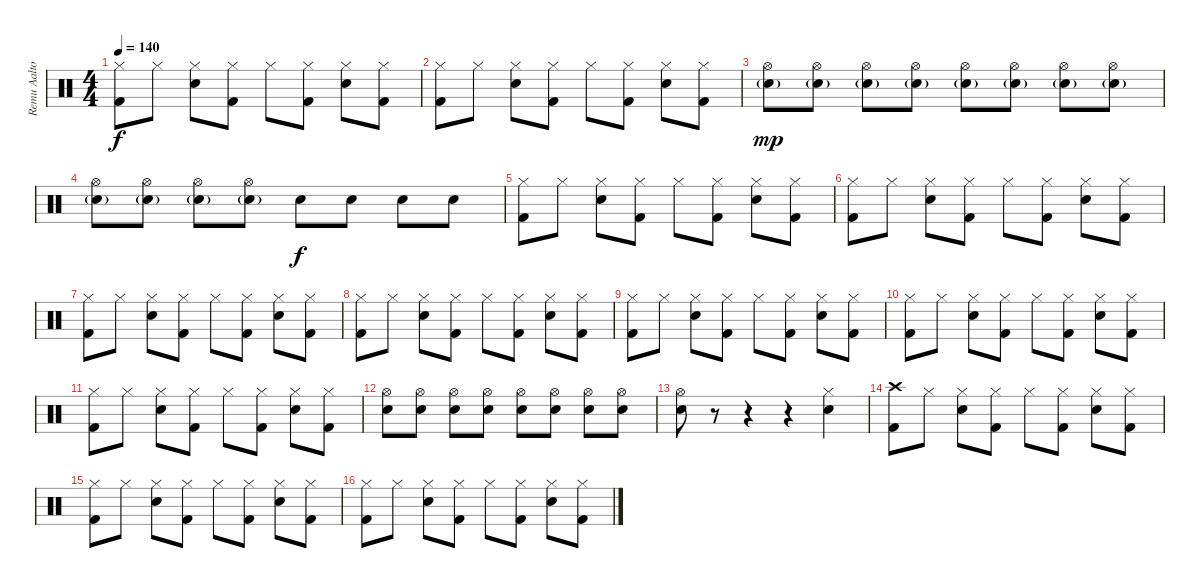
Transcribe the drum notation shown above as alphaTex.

\track ("Remu Aaltonen" "Remu Aalto") {instrument percussion}
\staff {score}
\articulation defaults
\ts (4 4)
\tempo 140
\clef neutral
\ks c
("Hi-Hat (closed)" "Kick (hit) 2").8{dy f} "Hi-Hat (closed)".8 ("Hi-Hat (closed)" "Snare (hit) 2").8 ("Hi-Hat (closed)" "Kick (hit) 2").8 "Hi-Hat (closed)".8 ("Hi-Hat (closed)" "Kick (hit) 2").8 ("Hi-Hat (closed)" "Snare (hit) 2").8 ("Hi-Hat (closed)" "Kick (hit) 2").8 |
("Hi-Hat (closed)" "Kick (hit) 2").8 "Hi-Hat (closed)".8 ("Hi-Hat (closed)" "Snare (hit) 2").8 ("Hi-Hat (closed)" "Kick (hit) 2").8 "Hi-Hat (closed)".8 ("Hi-Hat (closed)" "Kick (hit) 2").8 ("Hi-Hat (closed)" "Snare (hit) 2").8 ("Hi-Hat (closed)" "Kick (hit) 2").8 |
("Hi-Hat (open)" "Snare (hit) 2"{g}).8{dy mp} ("Hi-Hat (open)" "Snare (hit) 2"{g}).8 ("Hi-Hat (open)" "Snare (hit) 2"{g}).8 ("Hi-Hat (open)" "Snare (hit) 2"{g}).8 ("Hi-Hat (open)" "Snare (hit) 2"{g}).8 ("Hi-Hat (open)" "Snare (hit) 2"{g}).8 ("Hi-Hat (open)" "Snare (hit) 2"{g}).8 ("Hi-Hat (open)" "Snare (hit) 2"{g}).8 |
("Hi-Hat (open)" "Snare (hit) 2"{g}).8 ("Hi-Hat (open)" "Snare (hit) 2"{g}).8 ("Hi-Hat (open)" "Snare (hit) 2"{g}).8 ("Hi-Hat (open)" "Snare (hit) 2"{g}).8 "Snare (hit) 2".8{dy f} "Snare (hit) 2".8 "Snare (hit) 2".8 "Snare (hit) 2".8 |
("Hi-Hat (closed)" "Kick (hit) 2").8 "Hi-Hat (closed)".8 ("Hi-Hat (closed)" "Snare (hit) 2").8 ("Hi-Hat (closed)" "Kick (hit) 2").8 "Hi-Hat (closed)".8 ("Hi-Hat (closed)" "Kick (hit) 2").8 ("Hi-Hat (closed)" "Snare (hit) 2").8 ("Hi-Hat (closed)" "Kick (hit) 2").8 |
("Hi-Hat (closed)" "Kick (hit) 2").8 "Hi-Hat (closed)".8 ("Hi-Hat (closed)" "Snare (hit) 2").8 ("Hi-Hat (closed)" "Kick (hit) 2").8 "Hi-Hat (closed)".8 ("Hi-Hat (closed)" "Kick (hit) 2").8 ("Hi-Hat (closed)" "Snare (hit) 2").8 ("Hi-Hat (closed)" "Kick (hit) 2").8 |
("Hi-Hat (closed)" "Kick (hit) 2").8 "Hi-Hat (closed)".8 ("Hi-Hat (closed)" "Snare (hit) 2").8 ("Hi-Hat (closed)" "Kick (hit) 2").8 "Hi-Hat (closed)".8 ("Hi-Hat (closed)" "Kick (hit) 2").8 ("Hi-Hat (closed)" "Snare (hit) 2").8 ("Hi-Hat (closed)" "Kick (hit) 2").8 |
("Hi-Hat (closed)" "Kick (hit) 2").8 "Hi-Hat (closed)".8 ("Hi-Hat (closed)" "Snare (hit) 2").8 ("Hi-Hat (closed)" "Kick (hit) 2").8 "Hi-Hat (closed)".8 ("Hi-Hat (closed)" "Kick (hit) 2").8 ("Hi-Hat (closed)" "Snare (hit) 2").8 ("Hi-Hat (closed)" "Kick (hit) 2").8 |
("Hi-Hat (closed)" "Kick (hit) 2").8 "Hi-Hat (closed)".8 ("Hi-Hat (closed)" "Snare (hit) 2").8 ("Hi-Hat (closed)" "Kick (hit) 2").8 "Hi-Hat (closed)".8 ("Hi-Hat (closed)" "Kick (hit) 2").8 ("Hi-Hat (closed)" "Snare (hit) 2").8 ("Hi-Hat (closed)" "Kick (hit) 2").8 |
("Hi-Hat (closed)" "Kick (hit) 2").8 "Hi-Hat (closed)".8 ("Hi-Hat (closed)" "Snare (hit) 2").8 ("Hi-Hat (closed)" "Kick (hit) 2").8 "Hi-Hat (closed)".8 ("Hi-Hat (closed)" "Kick (hit) 2").8 ("Hi-Hat (closed)" "Snare (hit) 2").8 ("Hi-Hat (closed)" "Kick (hit) 2").8 |
("Hi-Hat (closed)" "Kick (hit) 2").8 "Hi-Hat (closed)".8 ("Hi-Hat (closed)" "Snare (hit) 2").8 ("Hi-Hat (closed)" "Kick (hit) 2").8 "Hi-Hat (closed)".8 ("Hi-Hat (closed)" "Kick (hit) 2").8 ("Hi-Hat (closed)" "Snare (hit) 2").8 ("Hi-Hat (closed)" "Kick (hit) 2").8 |
("Hi-Hat (open)" "Snare (hit) 2").8{volume 5} ("Hi-Hat (open)" "Snare (hit) 2").8{volume 13} ("Hi-Hat (open)" "Snare (hit) 2").8 ("Hi-Hat (open)" "Snare (hit) 2").8 ("Hi-Hat (open)" "Snare (hit) 2").8 ("Hi-Hat (open)" "Snare (hit) 2").8 ("Hi-Hat (open)" "Snare (hit) 2").8 ("Hi-Hat (open)" "Snare (hit) 2").8 |
("Hi-Hat (open)" "Snare (hit) 2").8 r.8 r.4 r.4 ("Hi-Hat (closed)" "Snare (hit) 2").4 |
("Crash high (hit)" "Kick (hit) 2").8 "Hi-Hat (closed)".8 ("Hi-Hat (closed)" "Snare (hit) 2").8 ("Hi-Hat (closed)" "Kick (hit) 2").8 "Hi-Hat (closed)".8 ("Hi-Hat (closed)" "Kick (hit) 2").8 ("Hi-Hat (closed)" "Snare (hit) 2").8 ("Hi-Hat (closed)" "Kick (hit) 2").8 |
("Hi-Hat (closed)" "Kick (hit) 2").8 "Hi-Hat (closed)".8 ("Hi-Hat (closed)" "Snare (hit) 2").8 ("Hi-Hat (closed)" "Kick (hit) 2").8 "Hi-Hat (closed)".8 ("Hi-Hat (closed)" "Kick (hit) 2").8 ("Hi-Hat (closed)" "Snare (hit) 2").8 ("Hi-Hat (closed)" "Kick (hit) 2").8 |
("Hi-Hat (closed)" "Kick (hit) 2").8 "Hi-Hat (closed)".8 ("Hi-Hat (closed)" "Snare (hit) 2").8 ("Hi-Hat (closed)" "Kick (hit) 2").8 "Hi-Hat (closed)".8 ("Hi-Hat (closed)" "Kick (hit) 2").8 ("Hi-Hat (closed)" "Snare (hit) 2").8 ("Hi-Hat (closed)" "Kick (hit) 2").8
